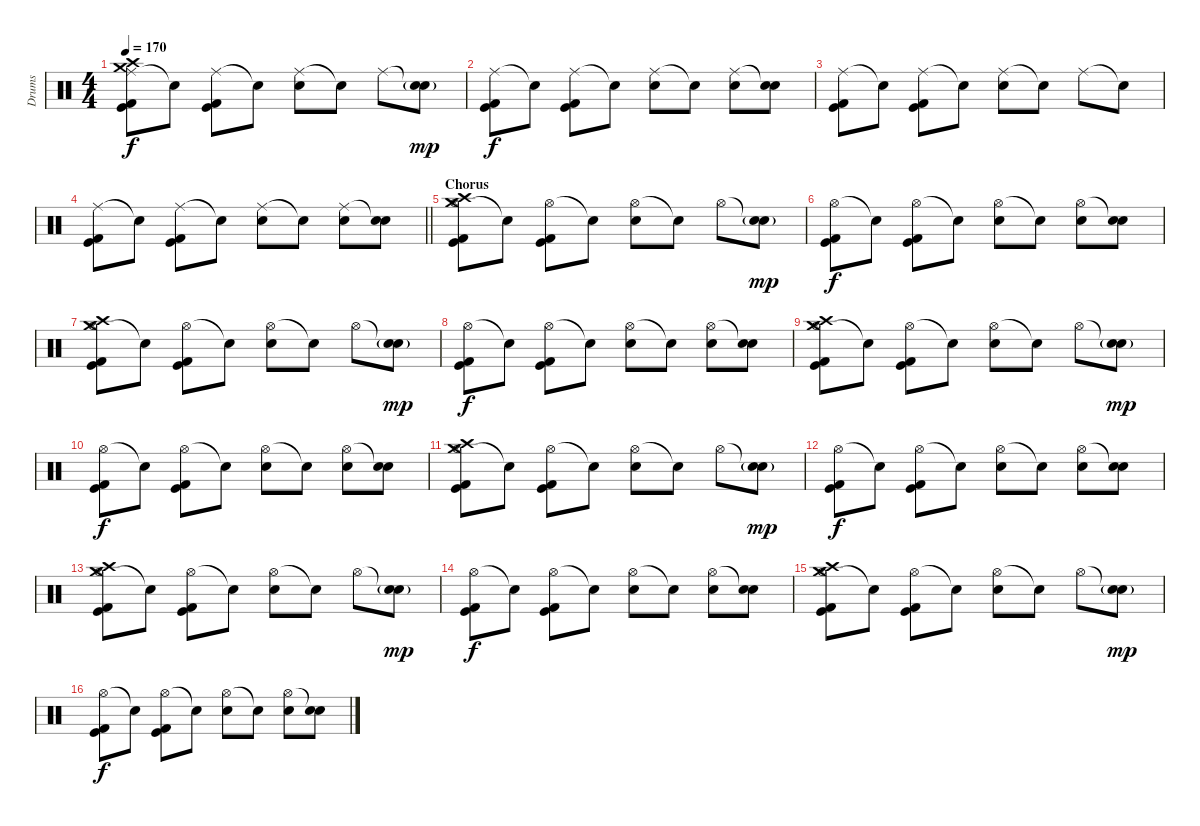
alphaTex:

\track ("Drums" "Drums") {instrument percussion}
\staff {score}
\articulation defaults
\ts (4 4)
\tempo 170
\clef neutral
\ks c
("Ride (middle)" "Crash high (hit)" "Crash medium (hit)" "Kick (hit)" "Kick (hit) 2").8{dy f} "Snare (hit)"{t}.8 ("Ride (middle)" "Kick (hit)" "Kick (hit) 2").8 "Snare (hit)"{t}.8 ("Ride (middle)" "Electric Snare (hit)").8 "Snare (hit)"{t}.8 "Ride (middle)".8 ("Snare (hit)"{t} "Electric Snare (hit)"{g}).8{dy mp} |
("Ride (middle)" "Kick (hit)" "Kick (hit) 2").8{dy f} "Snare (hit)"{t}.8 ("Ride (middle)" "Kick (hit)" "Kick (hit) 2").8 "Snare (hit)"{t}.8 ("Ride (middle)" "Electric Snare (hit)").8 "Snare (hit)"{t}.8 ("Ride (middle)" "Electric Snare (hit)").8 ("Snare (hit)"{t} "Electric Snare (hit)").8 |
("Ride (middle)" "Kick (hit)" "Kick (hit) 2").8 "Snare (hit)"{t}.8 ("Ride (middle)" "Kick (hit)" "Kick (hit) 2").8 "Snare (hit)"{t}.8 ("Ride (middle)" "Electric Snare (hit)").8 "Snare (hit)"{t}.8 "Ride (middle)".8 "Snare (hit)"{t}.8 |
\barLineRight lightlight
("Ride (middle)" "Kick (hit)" "Kick (hit) 2").8 "Snare (hit)"{t}.8 ("Ride (middle)" "Kick (hit)" "Kick (hit) 2").8 "Snare (hit)"{t}.8 ("Ride (middle)" "Electric Snare (hit)").8 "Snare (hit)"{t}.8 ("Ride (middle)" "Electric Snare (hit)").8 ("Snare (hit)"{t} "Electric Snare (hit)").8 |
\section ("" "Chorus")
("Hi-Hat (open)" "Crash high (hit)" "Crash medium (hit)" "Kick (hit)" "Kick (hit) 2").8 "Snare (hit)"{t}.8 ("Hi-Hat (open)" "Kick (hit)" "Kick (hit) 2").8 "Snare (hit)"{t}.8 ("Hi-Hat (open)" "Electric Snare (hit)").8 "Snare (hit)"{t}.8 "Hi-Hat (open)".8 ("Snare (hit)"{t} "Electric Snare (hit)"{g}).8{dy mp} |
("Hi-Hat (open)" "Kick (hit)" "Kick (hit) 2").8{dy f} "Snare (hit)"{t}.8 ("Hi-Hat (open)" "Kick (hit)" "Kick (hit) 2").8 "Snare (hit)"{t}.8 ("Hi-Hat (open)" "Electric Snare (hit)").8 "Snare (hit)"{t}.8 ("Hi-Hat (open)" "Electric Snare (hit)").8 ("Snare (hit)"{t} "Electric Snare (hit)").8 |
("Hi-Hat (open)" "Crash high (hit)" "Crash medium (hit)" "Kick (hit)" "Kick (hit) 2").8 "Snare (hit)"{t}.8 ("Hi-Hat (open)" "Kick (hit)" "Kick (hit) 2").8 "Snare (hit)"{t}.8 ("Hi-Hat (open)" "Electric Snare (hit)").8 "Snare (hit)"{t}.8 "Hi-Hat (open)".8 ("Snare (hit)"{t} "Electric Snare (hit)"{g}).8{dy mp} |
("Hi-Hat (open)" "Kick (hit)" "Kick (hit) 2").8{dy f} "Snare (hit)"{t}.8 ("Hi-Hat (open)" "Kick (hit)" "Kick (hit) 2").8 "Snare (hit)"{t}.8 ("Hi-Hat (open)" "Electric Snare (hit)").8 "Snare (hit)"{t}.8 ("Hi-Hat (open)" "Electric Snare (hit)").8 ("Snare (hit)"{t} "Electric Snare (hit)").8 |
("Hi-Hat (open)" "Crash high (hit)" "Crash medium (hit)" "Kick (hit)" "Kick (hit) 2").8 "Snare (hit)"{t}.8 ("Hi-Hat (open)" "Kick (hit)" "Kick (hit) 2").8 "Snare (hit)"{t}.8 ("Hi-Hat (open)" "Electric Snare (hit)").8 "Snare (hit)"{t}.8 "Hi-Hat (open)".8 ("Snare (hit)"{t} "Electric Snare (hit)"{g}).8{dy mp} |
("Hi-Hat (open)" "Kick (hit)" "Kick (hit) 2").8{dy f} "Snare (hit)"{t}.8 ("Hi-Hat (open)" "Kick (hit)" "Kick (hit) 2").8 "Snare (hit)"{t}.8 ("Hi-Hat (open)" "Electric Snare (hit)").8 "Snare (hit)"{t}.8 ("Hi-Hat (open)" "Electric Snare (hit)").8 ("Snare (hit)"{t} "Electric Snare (hit)").8 |
("Hi-Hat (open)" "Crash high (hit)" "Crash medium (hit)" "Kick (hit)" "Kick (hit) 2").8 "Snare (hit)"{t}.8 ("Hi-Hat (open)" "Kick (hit)" "Kick (hit) 2").8 "Snare (hit)"{t}.8 ("Hi-Hat (open)" "Electric Snare (hit)").8 "Snare (hit)"{t}.8 "Hi-Hat (open)".8 ("Snare (hit)"{t} "Electric Snare (hit)"{g}).8{dy mp} |
("Hi-Hat (open)" "Kick (hit)" "Kick (hit) 2").8{dy f} "Snare (hit)"{t}.8 ("Hi-Hat (open)" "Kick (hit)" "Kick (hit) 2").8 "Snare (hit)"{t}.8 ("Hi-Hat (open)" "Electric Snare (hit)").8 "Snare (hit)"{t}.8 ("Hi-Hat (open)" "Electric Snare (hit)").8 ("Snare (hit)"{t} "Electric Snare (hit)").8 |
("Hi-Hat (open)" "Crash high (hit)" "Crash medium (hit)" "Kick (hit)" "Kick (hit) 2").8 "Snare (hit)"{t}.8 ("Hi-Hat (open)" "Kick (hit)" "Kick (hit) 2").8 "Snare (hit)"{t}.8 ("Hi-Hat (open)" "Electric Snare (hit)").8 "Snare (hit)"{t}.8 "Hi-Hat (open)".8 ("Snare (hit)"{t} "Electric Snare (hit)"{g}).8{dy mp} |
("Hi-Hat (open)" "Kick (hit)" "Kick (hit) 2").8{dy f} "Snare (hit)"{t}.8 ("Hi-Hat (open)" "Kick (hit)" "Kick (hit) 2").8 "Snare (hit)"{t}.8 ("Hi-Hat (open)" "Electric Snare (hit)").8 "Snare (hit)"{t}.8 ("Hi-Hat (open)" "Electric Snare (hit)").8 ("Snare (hit)"{t} "Electric Snare (hit)").8 |
("Hi-Hat (open)" "Crash high (hit)" "Crash medium (hit)" "Kick (hit)" "Kick (hit) 2").8 "Snare (hit)"{t}.8 ("Hi-Hat (open)" "Kick (hit)" "Kick (hit) 2").8 "Snare (hit)"{t}.8 ("Hi-Hat (open)" "Electric Snare (hit)").8 "Snare (hit)"{t}.8 "Hi-Hat (open)".8 ("Snare (hit)"{t} "Electric Snare (hit)"{g}).8{dy mp} |
("Hi-Hat (open)" "Kick (hit)" "Kick (hit) 2").8{dy f} "Snare (hit)"{t}.8 ("Hi-Hat (open)" "Kick (hit)" "Kick (hit) 2").8 "Snare (hit)"{t}.8 ("Hi-Hat (open)" "Electric Snare (hit)").8 "Snare (hit)"{t}.8 ("Hi-Hat (open)" "Electric Snare (hit)").8 ("Snare (hit)"{t} "Electric Snare (hit)").8
